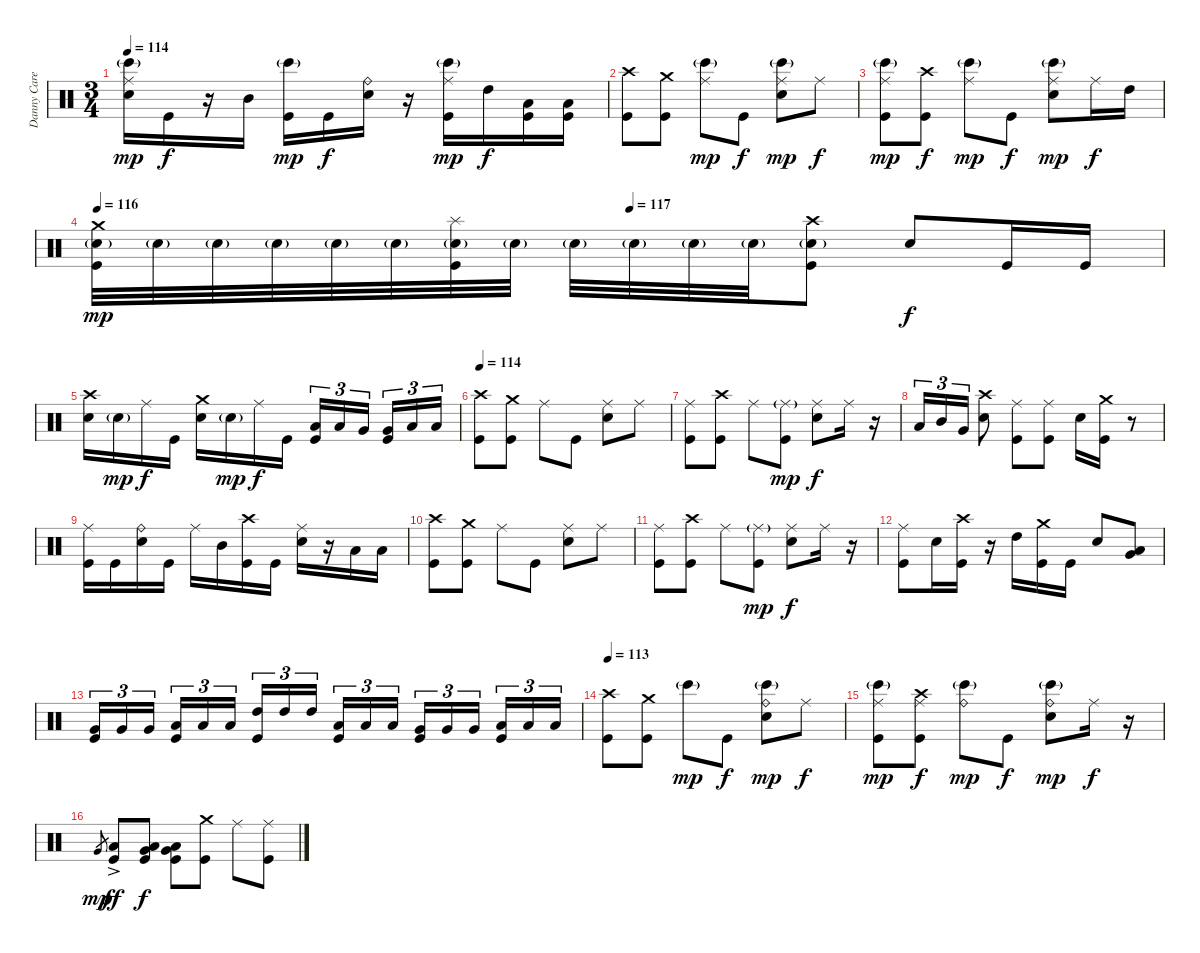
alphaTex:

\track ("Danny Carey (drum)" "Danny Care") {instrument percussion}
\staff {score}
\articulation defaults
\ts (3 4)
\tempo 114
\clef neutral
\ks c
("Ride (middle)" "Snare (hit) 2" "Bongo High (hit)"{g}).16{dy mp} "Kick (hit)".16{dy f} r.16 "Mid Tom (hit)".16 ("Bongo High (hit)"{g} "Kick (hit)").16{dy mp} "Kick (hit)".16{dy f} ("Ride (bell)" "Snare (hit) 2").16 r.16 ("Ride (middle)" "Bongo High (hit)"{g} "Kick (hit)").16{dy mp} "High Tom (hit)".16{dy f} ("Low Floor Tom (hit)" "Kick (hit)").16 ("Low Floor Tom (hit)" "Kick (hit)").16 |
("Crash high (hit)" "Kick (hit)").8 ("Crash medium (hit)" "Kick (hit)").8 ("Ride (middle)" "Bongo High (hit)"{g}).8{dy mp} "Kick (hit)".8{dy f} ("Ride (middle)" "Snare (hit) 2" "Bongo High (hit)"{g}).8{dy mp} "Ride (middle)".8{dy f} |
("Ride (middle)" "Bongo High (hit)"{g} "Kick (hit)").8{dy mp} ("Crash high (hit)" "Kick (hit)").8{dy f} ("Ride (middle)" "Bongo High (hit)"{g}).8{dy mp} "Kick (hit)".8{dy f} ("Ride (middle)" "Snare (hit) 2" "Bongo High (hit)"{g}).8{dy mp} "Ride (middle)".16{dy f} "High Tom (hit)".16 |
\tempo 116
\tempo (117 0.5)
("Crash medium (hit)" "Snare (hit) 2"{g} "Kick (hit)").32{dy mp} "Snare (hit) 2"{g}.32 "Snare (hit) 2"{g}.32 "Snare (hit) 2"{g}.32 "Snare (hit) 2"{g}.32 "Snare (hit) 2"{g}.32 ("Splash (hit)" "Snare (hit) 2"{g} "Kick (hit)").32 "Snare (hit) 2"{g}.32 "Snare (hit) 2"{g}.32 "Snare (hit) 2"{g}.32 "Snare (hit) 2"{g}.32 "Snare (hit) 2"{g}.32 ("Crash high (hit)" "Snare (hit) 2"{g} "Kick (hit)").8 "Snare (hit) 2".8{dy f} "Kick (hit)".16 "Kick (hit)".16 |
("Crash high (hit)" "Snare (hit) 2").16 "Snare (hit) 2"{g}.16{dy mp} "Ride (middle)".16{dy f} "Kick (hit)".16 ("Crash medium (hit)" "Snare (hit) 2").16 "Snare (hit) 2"{g}.16{dy mp} "Ride (middle)".16{dy f} "Kick (hit)".16 ("Low Tom (hit)" "Kick (hit)").16{tu (3 2)} "Low Tom (hit)".16{tu (3 2)} "Very Low Tom (hit)".16{tu (3 2) beam splitsecondary} ("Very Low Tom (hit)" "Kick (hit)").16{tu (3 2)} "Low Floor Tom (hit)".16{tu (3 2)} "Low Floor Tom (hit)".16{tu (3 2)} |
\tempo 114
("Crash high (hit)" "Kick (hit)").8 ("Crash medium (hit)" "Kick (hit)").8 "Ride (middle)".8 "Kick (hit)".8 ("Ride (middle)" "Snare (hit) 2").8 "Ride (middle)".8 |
("Ride (middle)" "Kick (hit)").8 ("Crash high (hit)" "Kick (hit)").8 "Ride (middle)".8 ("Ride (middle)"{g} "Kick (hit)").8{dy mp} ("Ride (middle)" "Snare (hit) 2").8{dy f} "Ride (middle)".16 r.16 |
"Low Tom (hit)".16{tu (3 2)} "Mid Tom (hit)".16{tu (3 2)} "Very Low Tom (hit)".16{tu (3 2)} ("Crash high (hit)" "Snare (hit) 2").8 ("Ride (middle)" "Kick (hit)").8 ("Ride (middle)" "Kick (hit)").8 "Snare (hit) 2".16 ("Crash medium (hit)" "Kick (hit)").16 r.8 |
("Ride (middle)" "Kick (hit)").16 "Kick (hit)".16 ("Ride (bell)" "Snare (hit) 2").16 "Kick (hit)".16 "Ride (middle)".16 "Mid Tom (hit)".16 ("Crash high (hit)" "Kick (hit)").16 "Kick (hit)".16 ("Ride (middle)" "Snare (hit) 2").16 r.16 "Low Floor Tom (hit)".16 "Low Floor Tom (hit)".16 |
("Crash high (hit)" "Kick (hit)").8 ("Crash medium (hit)" "Kick (hit)").8 "Ride (middle)".8 "Kick (hit)".8 ("Ride (middle)" "Snare (hit) 2").8 "Ride (middle)".8 |
("Ride (middle)" "Kick (hit)").8 ("Crash high (hit)" "Kick (hit)").8 "Ride (middle)".8 ("Ride (middle)"{g} "Kick (hit)").8{dy mp} ("Ride (middle)" "Snare (hit) 2").8{dy f} "Ride (middle)".16 r.16 |
("Ride (middle)" "Kick (hit)").8 "Snare (hit) 2".16 ("Crash high (hit)" "Kick (hit)").16 r.16 "High Tom (hit)".16 ("Crash medium (hit)" "Kick (hit)").16 "Kick (hit)".16 "Snare (hit) 2".8 ("Very Low Tom (hit)" "Low Floor Tom (hit)").8 |
("Very Low Tom (hit)" "Kick (hit)").16{tu (3 2)} "Very Low Tom (hit)".16{tu (3 2)} "Very Low Tom (hit)".16{tu (3 2) beam splitsecondary} ("Low Tom (hit)" "Kick (hit)").16{tu (3 2)} "Low Tom (hit)".16{tu (3 2)} "Low Tom (hit)".16{tu (3 2)} ("High Tom (hit)" "Kick (hit)").16{tu (3 2)} "High Tom (hit)".16{tu (3 2)} "High Tom (hit)".16{tu (3 2) beam splitsecondary} ("Low Tom (hit)" "Kick (hit)").16{tu (3 2)} "Low Tom (hit)".16{tu (3 2)} "Low Tom (hit)".16{tu (3 2)} ("Very Low Tom (hit)" "Kick (hit)").16{tu (3 2)} "Very Low Tom (hit)".16{tu (3 2)} "Very Low Tom (hit)".16{tu (3 2) beam splitsecondary} ("Low Tom (hit)" "Kick (hit)").16{tu (3 2)} "Low Tom (hit)".16{tu (3 2)} "Low Tom (hit)".16{tu (3 2)} |
\tempo 113
("Crash high (hit)" "Kick (hit)").8 ("Crash medium (hit)" "Kick (hit)").8 "Bongo High (hit)"{g}.8{dy mp} "Kick (hit)".8{dy f} ("Ride (bell)" "Snare (hit) 2" "Bongo High (hit)"{g}).8{dy mp} "Ride (middle)".8{dy f} |
("Ride (middle)" "Bongo High (hit)"{g} "Kick (hit)").8{dy mp} ("Crash high (hit)" "Ride (middle)" "Kick (hit)").8{dy f} ("Ride (bell)" "Bongo High (hit)"{g}).8{dy mp} "Kick (hit)".8{dy f} ("Ride (bell)" "Snare (hit) 2" "Bongo High (hit)"{g}).8{dy mp} "Ride (middle)".16{dy f} r.16 |
"Very Low Tom (hit)".8{gr dy mp} ("Low Tom (hit)"{ac} "Kick (hit)").8{dy ff} ("Very Low Tom (hit)" "Low Floor Tom (hit)" "Kick (hit)").8{dy f} ("Very Low Tom (hit)" "Low Floor Tom (hit)" "Kick (hit)").8 ("Crash medium (hit)" "Kick (hit)").8 "Ride (middle)".8 ("Ride (middle)" "Kick (hit)").8
